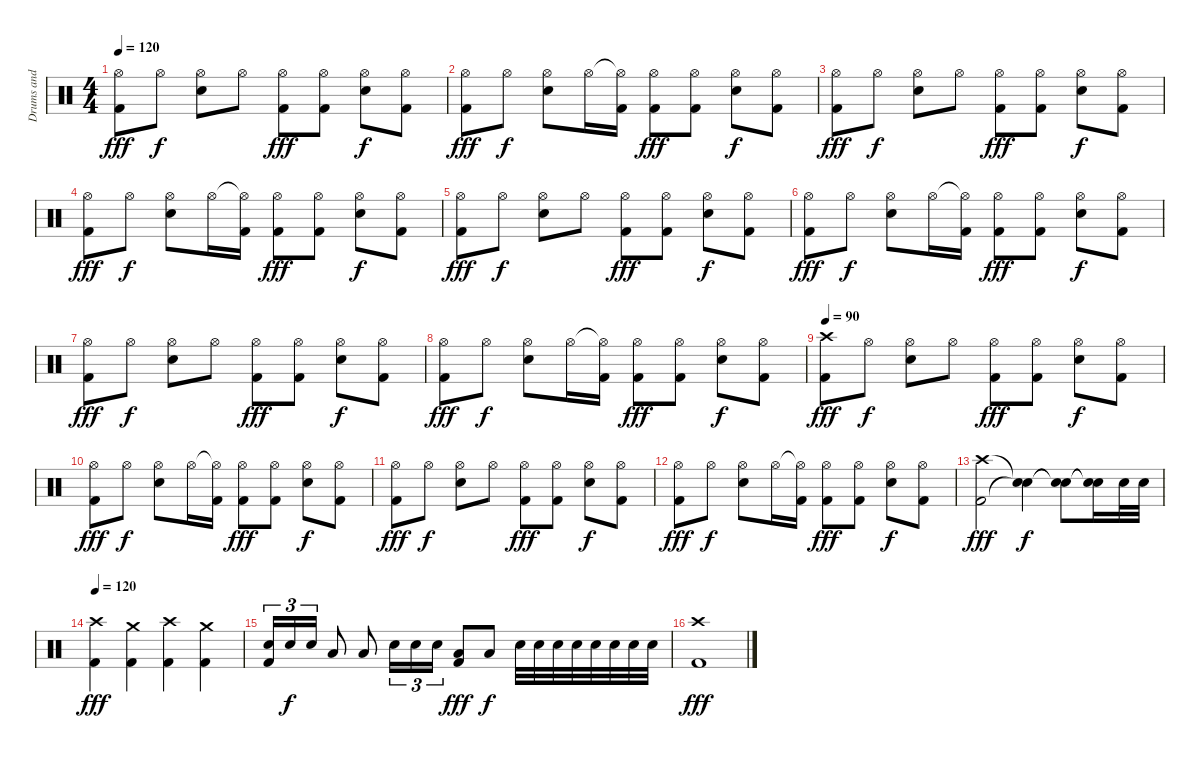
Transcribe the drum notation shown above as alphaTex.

\track ("Drums and Percussion" "Drums and ") {instrument percussion}
\staff {score}
\articulation defaults
\ts (4 4)
\tempo 120
\clef neutral
\ks c
("Hi-Hat (open)" "Kick (hit) 2").8{dy fff} "Hi-Hat (open)".8{dy f} ("Hi-Hat (open)" "Snare (hit) 2").8 "Hi-Hat (open)".8 ("Hi-Hat (open)" "Kick (hit) 2").8{dy fff} ("Hi-Hat (open)" "Kick (hit) 2").8 ("Hi-Hat (open)" "Snare (hit) 2").8{dy f} ("Hi-Hat (open)" "Kick (hit) 2").8 |
("Hi-Hat (open)" "Kick (hit) 2").8{dy fff} "Hi-Hat (open)".8{dy f} ("Hi-Hat (open)" "Snare (hit) 2").8 "Hi-Hat (open)".16 ("Hi-Hat (open)"{t} "Kick (hit) 2").16 ("Hi-Hat (open)" "Kick (hit) 2").8{dy fff} ("Hi-Hat (open)" "Kick (hit) 2").8 ("Hi-Hat (open)" "Snare (hit) 2").8{dy f} ("Hi-Hat (open)" "Kick (hit) 2").8 |
("Hi-Hat (open)" "Kick (hit) 2").8{dy fff} "Hi-Hat (open)".8{dy f} ("Hi-Hat (open)" "Snare (hit) 2").8 "Hi-Hat (open)".8 ("Hi-Hat (open)" "Kick (hit) 2").8{dy fff} ("Hi-Hat (open)" "Kick (hit) 2").8 ("Hi-Hat (open)" "Snare (hit) 2").8{dy f} ("Hi-Hat (open)" "Kick (hit) 2").8 |
("Hi-Hat (open)" "Kick (hit) 2").8{dy fff} "Hi-Hat (open)".8{dy f} ("Hi-Hat (open)" "Snare (hit) 2").8 "Hi-Hat (open)".16 ("Hi-Hat (open)"{t} "Kick (hit) 2").16 ("Hi-Hat (open)" "Kick (hit) 2").8{dy fff} ("Hi-Hat (open)" "Kick (hit) 2").8 ("Hi-Hat (open)" "Snare (hit) 2").8{dy f} ("Hi-Hat (open)" "Kick (hit) 2").8 |
("Hi-Hat (open)" "Kick (hit) 2").8{dy fff} "Hi-Hat (open)".8{dy f} ("Hi-Hat (open)" "Snare (hit) 2").8 "Hi-Hat (open)".8 ("Hi-Hat (open)" "Kick (hit) 2").8{dy fff} ("Hi-Hat (open)" "Kick (hit) 2").8 ("Hi-Hat (open)" "Snare (hit) 2").8{dy f} ("Hi-Hat (open)" "Kick (hit) 2").8 |
("Hi-Hat (open)" "Kick (hit) 2").8{dy fff} "Hi-Hat (open)".8{dy f} ("Hi-Hat (open)" "Snare (hit) 2").8 "Hi-Hat (open)".16 ("Hi-Hat (open)"{t} "Kick (hit) 2").16 ("Hi-Hat (open)" "Kick (hit) 2").8{dy fff} ("Hi-Hat (open)" "Kick (hit) 2").8 ("Hi-Hat (open)" "Snare (hit) 2").8{dy f} ("Hi-Hat (open)" "Kick (hit) 2").8 |
("Hi-Hat (open)" "Kick (hit) 2").8{dy fff} "Hi-Hat (open)".8{dy f} ("Hi-Hat (open)" "Snare (hit) 2").8 "Hi-Hat (open)".8 ("Hi-Hat (open)" "Kick (hit) 2").8{dy fff} ("Hi-Hat (open)" "Kick (hit) 2").8 ("Hi-Hat (open)" "Snare (hit) 2").8{dy f} ("Hi-Hat (open)" "Kick (hit) 2").8 |
("Hi-Hat (open)" "Kick (hit) 2").8{dy fff} "Hi-Hat (open)".8{dy f} ("Hi-Hat (open)" "Snare (hit) 2").8 "Hi-Hat (open)".16 ("Hi-Hat (open)"{t} "Kick (hit) 2").16 ("Hi-Hat (open)" "Kick (hit) 2").8{dy fff} ("Hi-Hat (open)" "Kick (hit) 2").8 ("Hi-Hat (open)" "Snare (hit) 2").8{dy f} ("Hi-Hat (open)" "Kick (hit) 2").8 |
\tempo 90
("Crash high (hit)" "Kick (hit) 2").8{dy fff} "Hi-Hat (open)".8{dy f} ("Hi-Hat (open)" "Snare (hit) 2").8 "Hi-Hat (open)".8 ("Hi-Hat (open)" "Kick (hit) 2").8{dy fff} ("Hi-Hat (open)" "Kick (hit) 2").8 ("Hi-Hat (open)" "Snare (hit) 2").8{dy f} ("Hi-Hat (open)" "Kick (hit) 2").8 |
("Hi-Hat (open)" "Kick (hit) 2").8{dy fff} "Hi-Hat (open)".8{dy f} ("Hi-Hat (open)" "Snare (hit) 2").8 "Hi-Hat (open)".16 ("Hi-Hat (open)"{t} "Kick (hit) 2").16 ("Hi-Hat (open)" "Kick (hit) 2").8{dy fff} ("Hi-Hat (open)" "Kick (hit) 2").8 ("Hi-Hat (open)" "Snare (hit) 2").8{dy f} ("Hi-Hat (open)" "Kick (hit) 2").8 |
("Hi-Hat (open)" "Kick (hit) 2").8{dy fff} "Hi-Hat (open)".8{dy f} ("Hi-Hat (open)" "Snare (hit) 2").8 "Hi-Hat (open)".8 ("Hi-Hat (open)" "Kick (hit) 2").8{dy fff} ("Hi-Hat (open)" "Kick (hit) 2").8 ("Hi-Hat (open)" "Snare (hit) 2").8{dy f} ("Hi-Hat (open)" "Kick (hit) 2").8 |
("Hi-Hat (open)" "Kick (hit) 2").8{dy fff} "Hi-Hat (open)".8{dy f} ("Hi-Hat (open)" "Snare (hit) 2").8 "Hi-Hat (open)".16 ("Hi-Hat (open)"{t} "Kick (hit) 2").16 ("Hi-Hat (open)" "Kick (hit) 2").8{dy fff} ("Hi-Hat (open)" "Kick (hit) 2").8 ("Hi-Hat (open)" "Snare (hit) 2").8{dy f} ("Hi-Hat (open)" "Kick (hit) 2").8 |
("Crash high (hit)" "Kick (hit) 2").2{dy fff} ("Snare (hit)"{t} "Snare (hit)"{t}).4{dy f} ("Snare (hit)"{t} "Snare (hit)"{t}).8 ("Snare (hit)"{t} "Snare (hit)"{t}).16 "Snare (hit) 2".32 "Snare (hit) 2".32 |
\tempo 120
("Crash high (hit)" "Kick (hit) 2").4{dy fff} ("Crash medium (hit)" "Kick (hit) 2").4 ("Crash high (hit)" "Kick (hit) 2").4 ("Crash medium (hit)" "Kick (hit) 2").4 |
("Snare (hit) 2" "Kick (hit) 2").16{tu (3 2)} "Snare (hit) 2".16{tu (3 2) dy f} "Snare (hit) 2".16{tu (3 2)} "Low Tom (hit)".8 "Low Tom (hit)".8 "Snare (hit) 2".16{tu (3 2)} "Snare (hit) 2".16{tu (3 2)} "Snare (hit) 2".16{tu (3 2)} ("Low Tom (hit)" "Kick (hit) 2").8{dy fff} "Low Tom (hit)".8{dy f} "Snare (hit) 2".32 "Snare (hit) 2".32 "Snare (hit) 2".32 "Snare (hit) 2".32 "Snare (hit) 2".32 "Snare (hit) 2".32 "Snare (hit) 2".32 "Snare (hit) 2".32 |
("Crash high (hit)" "Kick (hit) 2").1{dy fff}
